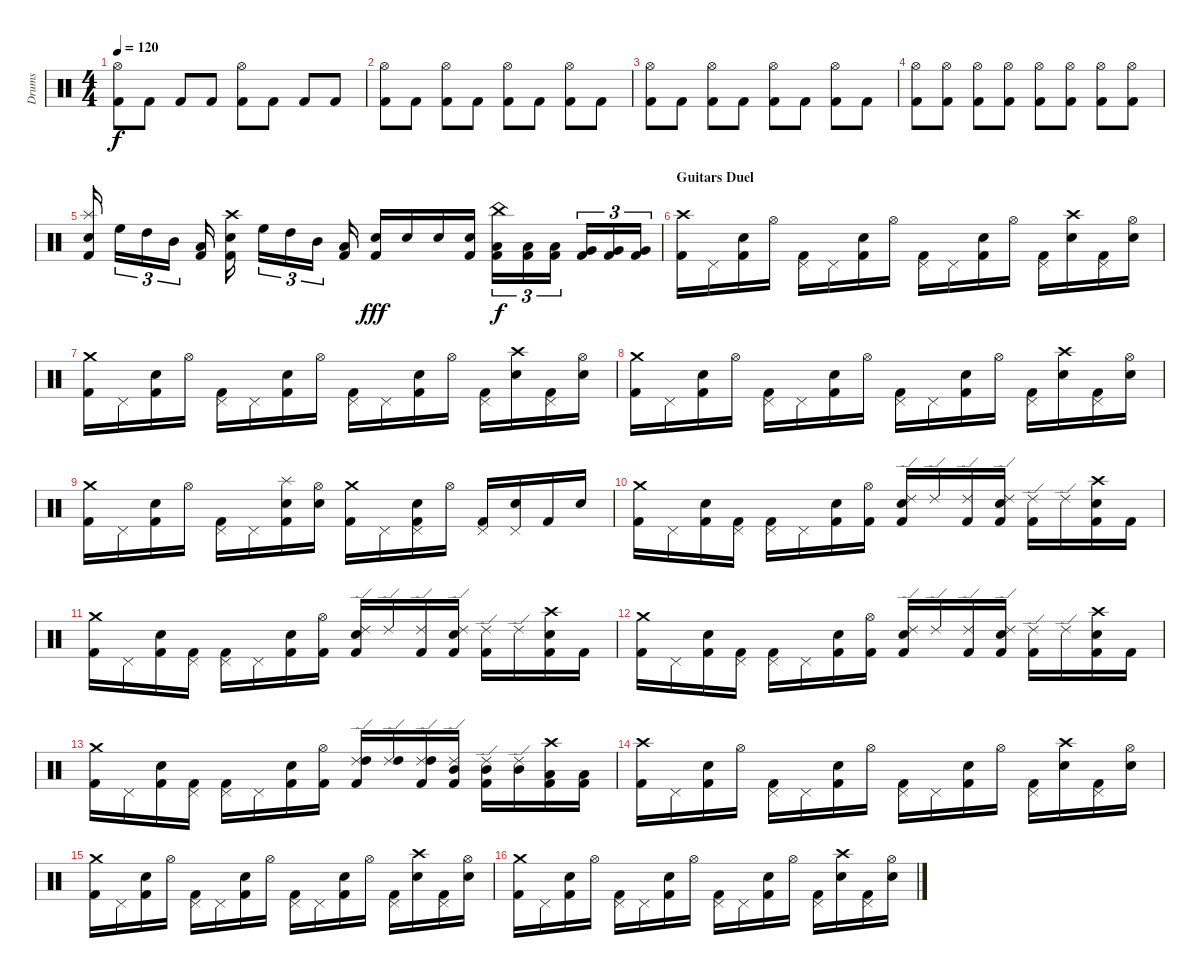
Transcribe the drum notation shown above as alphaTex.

\track ("Drums" "Drums") {instrument percussion}
\staff {score}
\articulation defaults
\ts (4 4)
\tempo 120
\clef neutral
\ks c
("Hi-Hat (open)" "Kick (hit) 2").8{dy f} "Kick (hit) 2".8 "Kick (hit) 2".8 "Kick (hit) 2".8 ("Hi-Hat (open)" "Kick (hit) 2").8 "Kick (hit) 2".8 "Kick (hit) 2".8 "Kick (hit) 2".8 |
("Hi-Hat (open)" "Kick (hit) 2").8 "Kick (hit) 2".8 ("Hi-Hat (open)" "Kick (hit) 2").8 "Kick (hit) 2".8 ("Hi-Hat (open)" "Kick (hit) 2").8 "Kick (hit) 2".8 ("Hi-Hat (open)" "Kick (hit) 2").8 "Kick (hit) 2".8 |
("Hi-Hat (open)" "Kick (hit) 2").8 "Kick (hit) 2".8 ("Hi-Hat (open)" "Kick (hit) 2").8 "Kick (hit) 2".8 ("Hi-Hat (open)" "Kick (hit) 2").8 "Kick (hit) 2".8 ("Hi-Hat (open)" "Kick (hit) 2").8 "Kick (hit) 2".8 |
("Hi-Hat (open)" "Kick (hit) 2").8 ("Hi-Hat (open)" "Kick (hit) 2").8 ("Hi-Hat (open)" "Kick (hit) 2").8 ("Hi-Hat (open)" "Kick (hit) 2").8 ("Hi-Hat (open)" "Kick (hit) 2").8 ("Hi-Hat (open)" "Kick (hit) 2").8 ("Hi-Hat (open)" "Kick (hit) 2").8 ("Hi-Hat (open)" "Kick (hit) 2").8 |
("Splash (hit)" "Snare (hit) 2" "Kick (hit) 2").16 "High Floor Tom (hit)".16{tu (3 2)} "High Tom (hit)".16{tu (3 2)} "Mid Tom (hit)".16{tu (3 2)} ("Low Tom (hit)" "Kick (hit) 2").16 ("Crash high (hit)" "Snare (hit) 2" "Kick (hit) 2").16 "High Floor Tom (hit)".16{tu (3 2)} "High Tom (hit)".16{tu (3 2)} "Mid Tom (hit)".16{tu (3 2)} ("Low Tom (hit)" "Kick (hit) 2").16 ("Snare (hit) 2" "Kick (hit) 2").16{dy fff} "Snare (hit) 2".16 "Snare (hit) 2".16 ("Snare (hit) 2" "Kick (hit) 2").16 ("China (hit)" "Low Tom (hit)" "Kick (hit) 2").16{tu (3 2) dy f} ("Low Tom (hit)" "Kick (hit) 2").16{tu (3 2)} ("Low Tom (hit)" "Kick (hit) 2").16{tu (3 2)} ("Very Low Tom (hit)" "Kick (hit) 2").16{tu (3 2)} ("Very Low Tom (hit)" "Kick (hit) 2").16{tu (3 2)} ("Very Low Tom (hit)" "Kick (hit) 2").16{tu (3 2)} |
\section ("" "Guitars Duel")
("Crash high (hit)" "Kick (hit) 2").16 "Pedal Hi-Hat (hit)".16 ("Snare (hit) 2" "Kick (hit) 2").16 "Hi-Hat (open)".16 ("Pedal Hi-Hat (hit)" "Kick (hit) 2").16 "Pedal Hi-Hat (hit)".16 ("Snare (hit) 2" "Kick (hit) 2").16 "Hi-Hat (open)".16 ("Pedal Hi-Hat (hit)" "Kick (hit) 2").16 "Pedal Hi-Hat (hit)".16 ("Snare (hit) 2" "Kick (hit) 2").16 "Hi-Hat (open)".16 ("Pedal Hi-Hat (hit)" "Kick (hit) 2").16 ("Crash high (hit)" "Snare (hit) 2").16 ("Pedal Hi-Hat (hit)" "Kick (hit) 2").16 ("Hi-Hat (open)" "Snare (hit) 2").16 |
("Crash medium (hit)" "Kick (hit) 2").16 "Pedal Hi-Hat (hit)".16 ("Snare (hit) 2" "Kick (hit) 2").16 "Hi-Hat (open)".16 ("Pedal Hi-Hat (hit)" "Kick (hit) 2").16 "Pedal Hi-Hat (hit)".16 ("Snare (hit) 2" "Kick (hit) 2").16 "Hi-Hat (open)".16 ("Pedal Hi-Hat (hit)" "Kick (hit) 2").16 "Pedal Hi-Hat (hit)".16 ("Snare (hit) 2" "Kick (hit) 2").16 "Hi-Hat (open)".16 ("Pedal Hi-Hat (hit)" "Kick (hit) 2").16 ("Crash high (hit)" "Snare (hit) 2").16 ("Pedal Hi-Hat (hit)" "Kick (hit) 2").16 ("Hi-Hat (open)" "Snare (hit) 2").16 |
("Crash medium (hit)" "Kick (hit) 2").16 "Pedal Hi-Hat (hit)".16 ("Snare (hit) 2" "Kick (hit) 2").16 "Hi-Hat (open)".16 ("Pedal Hi-Hat (hit)" "Kick (hit) 2").16 "Pedal Hi-Hat (hit)".16 ("Snare (hit) 2" "Kick (hit) 2").16 "Hi-Hat (open)".16 ("Pedal Hi-Hat (hit)" "Kick (hit) 2").16 "Pedal Hi-Hat (hit)".16 ("Snare (hit) 2" "Kick (hit) 2").16 "Hi-Hat (open)".16 ("Pedal Hi-Hat (hit)" "Kick (hit) 2").16 ("Crash high (hit)" "Snare (hit) 2").16 ("Pedal Hi-Hat (hit)" "Kick (hit) 2").16 ("Hi-Hat (open)" "Snare (hit) 2").16 |
("Crash medium (hit)" "Kick (hit) 2").16 "Pedal Hi-Hat (hit)".16 ("Snare (hit) 2" "Kick (hit) 2").16 "Hi-Hat (open)".16 ("Pedal Hi-Hat (hit)" "Kick (hit) 2").16 "Pedal Hi-Hat (hit)".16 ("Splash (hit)" "Snare (hit) 2" "Kick (hit) 2").16 ("Hi-Hat (open)" "Snare (hit) 2").16 ("Crash medium (hit)" "Kick (hit) 2").16 "Pedal Hi-Hat (hit)".16 ("Pedal Hi-Hat (hit)" "Snare (hit) 2" "Kick (hit) 2").16 "Hi-Hat (open)".16 ("Pedal Hi-Hat (hit)" "Kick (hit) 2").16 ("Pedal Hi-Hat (hit)" "Snare (hit) 2").16 "Kick (hit) 2".16 "Snare (hit) 2".16 |
("Crash medium (hit)" "Kick (hit) 2").16 "Pedal Hi-Hat (hit)".16 ("Snare (hit) 2" "Kick (hit) 2").16 ("Pedal Hi-Hat (hit)" "Kick (hit) 2").16 ("Pedal Hi-Hat (hit)" "Kick (hit) 2").16 "Pedal Hi-Hat (hit)".16 ("Snare (hit) 2" "Kick (hit) 2").16 ("Hi-Hat (open)" "Kick (hit) 2").16 ("Ride (edge) 2" "Snare (hit) 2" "Kick (hit) 2").16 "Ride (edge) 2".16 ("Ride (edge) 2" "Kick (hit) 2").16 ("Ride (edge) 2" "Snare (hit) 2" "Kick (hit) 2").16 ("Ride (edge) 2" "Kick (hit) 2").16 "Ride (edge) 2".16 ("Crash high (hit)" "Snare (hit) 2" "Kick (hit) 2").16 "Kick (hit) 2".16 |
("Crash medium (hit)" "Kick (hit) 2").16 "Pedal Hi-Hat (hit)".16 ("Snare (hit) 2" "Kick (hit) 2").16 ("Pedal Hi-Hat (hit)" "Kick (hit) 2").16 ("Pedal Hi-Hat (hit)" "Kick (hit) 2").16 "Pedal Hi-Hat (hit)".16 ("Snare (hit) 2" "Kick (hit) 2").16 ("Hi-Hat (open)" "Kick (hit) 2").16 ("Ride (edge) 2" "Snare (hit) 2" "Kick (hit) 2").16 "Ride (edge) 2".16 ("Ride (edge) 2" "Kick (hit) 2").16 ("Ride (edge) 2" "Snare (hit) 2" "Kick (hit) 2").16 ("Ride (edge) 2" "Kick (hit) 2").16 "Ride (edge) 2".16 ("Crash high (hit)" "Snare (hit) 2" "Kick (hit) 2").16 "Kick (hit) 2".16 |
("Crash medium (hit)" "Kick (hit) 2").16 "Pedal Hi-Hat (hit)".16 ("Snare (hit) 2" "Kick (hit) 2").16 ("Pedal Hi-Hat (hit)" "Kick (hit) 2").16 ("Pedal Hi-Hat (hit)" "Kick (hit) 2").16 "Pedal Hi-Hat (hit)".16 ("Snare (hit) 2" "Kick (hit) 2").16 ("Hi-Hat (open)" "Kick (hit) 2").16 ("Ride (edge) 2" "Snare (hit) 2" "Kick (hit) 2").16 "Ride (edge) 2".16 ("Ride (edge) 2" "Kick (hit) 2").16 ("Ride (edge) 2" "Snare (hit) 2" "Kick (hit) 2").16 ("Ride (edge) 2" "Kick (hit) 2").16 "Ride (edge) 2".16 ("Crash high (hit)" "Snare (hit) 2" "Kick (hit) 2").16 "Kick (hit) 2".16 |
("Crash medium (hit)" "Kick (hit) 2").16 "Pedal Hi-Hat (hit)".16 ("Snare (hit) 2" "Kick (hit) 2").16 ("Pedal Hi-Hat (hit)" "Kick (hit) 2").16 ("Pedal Hi-Hat (hit)" "Kick (hit) 2").16 "Pedal Hi-Hat (hit)".16 ("Snare (hit) 2" "Kick (hit) 2").16 ("Hi-Hat (open)" "Kick (hit) 2").16 ("Ride (edge) 2" "High Tom (hit)" "Kick (hit) 2").16 ("Ride (edge) 2" "High Tom (hit)").16 ("Ride (edge) 2" "High Tom (hit)" "Kick (hit) 2").16 ("Ride (edge) 2" "Mid Tom (hit)" "Kick (hit) 2").16 ("Ride (edge) 2" "Mid Tom (hit)" "Kick (hit) 2").16 ("Ride (edge) 2" "Mid Tom (hit)").16 ("Crash high (hit)" "Low Tom (hit)" "Kick (hit) 2").16 ("Low Tom (hit)" "Kick (hit) 2").16 |
("Crash high (hit)" "Kick (hit) 2").16 "Pedal Hi-Hat (hit)".16 ("Snare (hit) 2" "Kick (hit) 2").16 "Hi-Hat (open)".16 ("Pedal Hi-Hat (hit)" "Kick (hit) 2").16 "Pedal Hi-Hat (hit)".16 ("Snare (hit) 2" "Kick (hit) 2").16 "Hi-Hat (open)".16 ("Pedal Hi-Hat (hit)" "Kick (hit) 2").16 "Pedal Hi-Hat (hit)".16 ("Snare (hit) 2" "Kick (hit) 2").16 "Hi-Hat (open)".16 ("Pedal Hi-Hat (hit)" "Kick (hit) 2").16 ("Crash high (hit)" "Snare (hit) 2").16 ("Pedal Hi-Hat (hit)" "Kick (hit) 2").16 ("Hi-Hat (open)" "Snare (hit) 2").16 |
("Crash medium (hit)" "Kick (hit) 2").16 "Pedal Hi-Hat (hit)".16 ("Snare (hit) 2" "Kick (hit) 2").16 "Hi-Hat (open)".16 ("Pedal Hi-Hat (hit)" "Kick (hit) 2").16 "Pedal Hi-Hat (hit)".16 ("Snare (hit) 2" "Kick (hit) 2").16 "Hi-Hat (open)".16 ("Pedal Hi-Hat (hit)" "Kick (hit) 2").16 "Pedal Hi-Hat (hit)".16 ("Snare (hit) 2" "Kick (hit) 2").16 "Hi-Hat (open)".16 ("Pedal Hi-Hat (hit)" "Kick (hit) 2").16 ("Crash high (hit)" "Snare (hit) 2").16 ("Pedal Hi-Hat (hit)" "Kick (hit) 2").16 ("Hi-Hat (open)" "Snare (hit) 2").16 |
("Crash medium (hit)" "Kick (hit) 2").16 "Pedal Hi-Hat (hit)".16 ("Snare (hit) 2" "Kick (hit) 2").16 "Hi-Hat (open)".16 ("Pedal Hi-Hat (hit)" "Kick (hit) 2").16 "Pedal Hi-Hat (hit)".16 ("Snare (hit) 2" "Kick (hit) 2").16 "Hi-Hat (open)".16 ("Pedal Hi-Hat (hit)" "Kick (hit) 2").16 "Pedal Hi-Hat (hit)".16 ("Snare (hit) 2" "Kick (hit) 2").16 "Hi-Hat (open)".16 ("Pedal Hi-Hat (hit)" "Kick (hit) 2").16 ("Crash high (hit)" "Snare (hit) 2").16 ("Pedal Hi-Hat (hit)" "Kick (hit) 2").16 ("Hi-Hat (open)" "Snare (hit) 2").16
